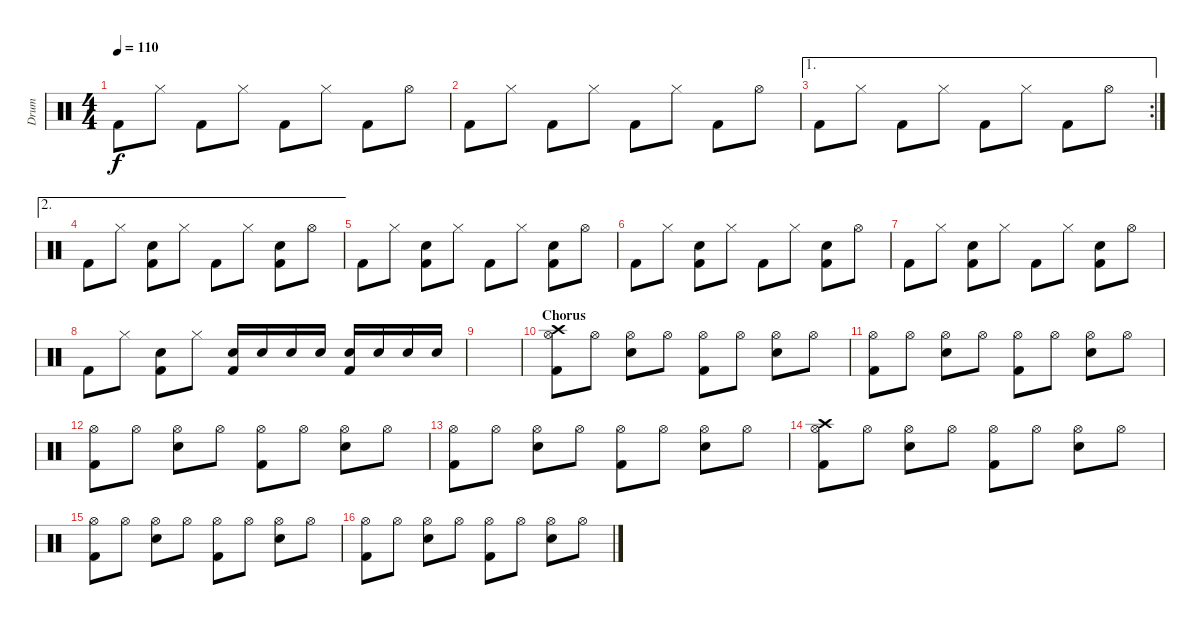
\track ("Drum" "Drum") {instrument percussion}
\staff {score}
\articulation defaults
\ts (4 4)
\tempo 110
\clef neutral
\ks c "Kick (hit) 2".8{dy f} "Hi-Hat (closed)".8 "Kick (hit) 2".8 "Hi-Hat (closed)".8 "Kick (hit) 2".8 "Hi-Hat (closed)".8 "Kick (hit) 2".8 "Hi-Hat (open)".8
|
"Kick (hit) 2".8 "Hi-Hat (closed)".8 "Kick (hit) 2".8 "Hi-Hat (closed)".8 "Kick (hit) 2".8 "Hi-Hat (closed)".8 "Kick (hit) 2".8 "Hi-Hat (open)".8 |
\ae 1
\rc 2 "Kick (hit) 2".8 "Hi-Hat (closed)".8 "Kick (hit) 2".8 "Hi-Hat (closed)".8 "Kick (hit) 2".8 "Hi-Hat (closed)".8 "Kick (hit) 2".8 "Hi-Hat (open)".8
|
\ae 2 "Kick (hit) 2".8 "Hi-Hat (closed)".8
("Electric Snare (hit)" "Kick (hit) 2").8 "Hi-Hat (closed)".8 "Kick (hit) 2".8 "Hi-Hat (closed)".8 ("Electric Snare (hit)" "Kick (hit) 2").8 "Hi-Hat (open)".8 |
"Kick (hit) 2".8 "Hi-Hat (closed)".8 ("Electric Snare (hit)" "Kick (hit) 2").8 "Hi-Hat (closed)".8 "Kick (hit) 2".8 "Hi-Hat (closed)".8 ("Electric Snare (hit)" "Kick (hit) 2").8 "Hi-Hat (open)".8 |
"Kick (hit) 2".8 "Hi-Hat (closed)".8 ("Electric Snare (hit)" "Kick (hit) 2").8 "Hi-Hat (closed)".8 "Kick (hit) 2".8 "Hi-Hat (closed)".8 ("Electric Snare (hit)" "Kick (hit) 2").8 "Hi-Hat (open)".8 |
"Kick (hit) 2".8 "Hi-Hat (closed)".8 ("Electric Snare (hit)" "Kick (hit) 2").8 "Hi-Hat (closed)".8 "Kick (hit) 2".8 "Hi-Hat (closed)".8 ("Electric Snare (hit)" "Kick (hit) 2").8 "Hi-Hat (open)".8 |
"Kick (hit) 2".8 "Hi-Hat (closed)".8 ("Electric Snare (hit)" "Kick (hit) 2").8 "Hi-Hat (closed)".8 ("Electric Snare (hit)" "Kick (hit) 2").16 "Electric Snare (hit)".16 "Electric Snare (hit)".16 "Electric Snare (hit)".16 ("Electric Snare (hit)" "Kick (hit) 2").16 "Electric Snare (hit)".16 "Electric Snare (hit)".16 "Electric Snare (hit)".16 |
|
\section ("" "Chorus")
("Crash high (hit)" "Hi-Hat (open)" "Kick (hit) 2").8 "Hi-Hat (open)".8 ("Hi-Hat (open)" "Electric Snare (hit)").8 "Hi-Hat (open)".8 ("Hi-Hat (open)" "Kick (hit) 2").8 "Hi-Hat (open)".8 ("Hi-Hat (open)" "Electric Snare (hit)").8 "Hi-Hat (open)".8 |
("Hi-Hat (open)" "Kick (hit) 2").8 "Hi-Hat (open)".8 ("Hi-Hat (open)" "Electric Snare (hit)").8 "Hi-Hat (open)".8 ("Hi-Hat (open)" "Kick (hit) 2").8 "Hi-Hat (open)".8 ("Hi-Hat (open)" "Electric Snare (hit)").8 "Hi-Hat (open)".8 |
("Hi-Hat (open)" "Kick (hit) 2").8 "Hi-Hat (open)".8 ("Hi-Hat (open)" "Electric Snare (hit)").8 "Hi-Hat (open)".8 ("Hi-Hat (open)" "Kick (hit) 2").8 "Hi-Hat (open)".8 ("Hi-Hat (open)" "Electric Snare (hit)").8 "Hi-Hat (open)".8 |
("Hi-Hat (open)" "Kick (hit) 2").8 "Hi-Hat (open)".8 ("Hi-Hat (open)" "Electric Snare (hit)").8 "Hi-Hat (open)".8 ("Hi-Hat (open)" "Kick (hit) 2").8 "Hi-Hat (open)".8 ("Hi-Hat (open)" "Electric Snare (hit)").8 "Hi-Hat (open)".8 |
("Crash high (hit)" "Hi-Hat (open)" "Kick (hit) 2").8 "Hi-Hat (open)".8 ("Hi-Hat (open)" "Electric Snare (hit)").8 "Hi-Hat (open)".8 ("Hi-Hat (open)" "Kick (hit) 2").8 "Hi-Hat (open)".8 ("Hi-Hat (open)" "Electric Snare (hit)").8 "Hi-Hat (open)".8 |
("Hi-Hat (open)" "Kick (hit) 2").8 "Hi-Hat (open)".8 ("Hi-Hat (open)" "Electric Snare (hit)").8 "Hi-Hat (open)".8 ("Hi-Hat (open)" "Kick (hit) 2").8 "Hi-Hat (open)".8 ("Hi-Hat (open)" "Electric Snare (hit)").8 "Hi-Hat (open)".8 |
("Hi-Hat (open)" "Kick (hit) 2").8 "Hi-Hat (open)".8 ("Hi-Hat (open)" "Electric Snare (hit)").8 "Hi-Hat (open)".8 ("Hi-Hat (open)" "Kick (hit) 2").8 "Hi-Hat (open)".8 ("Hi-Hat (open)" "Electric Snare (hit)").8 "Hi-Hat (open)".8
